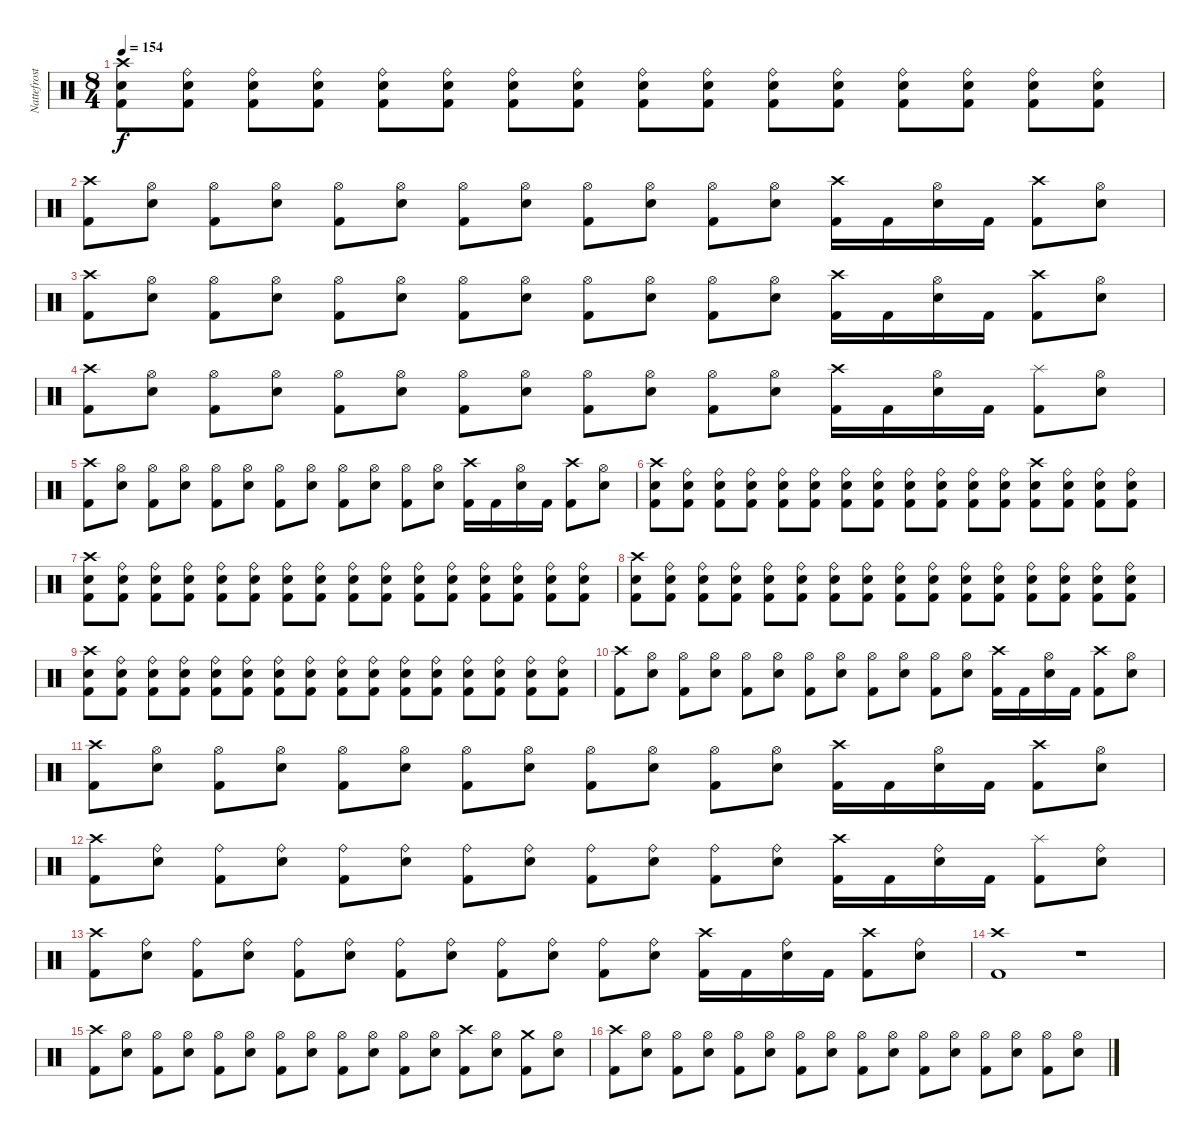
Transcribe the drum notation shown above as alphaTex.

\track ("Nattefrost" "Nattefrost") {instrument percussion}
\staff {score}
\articulation defaults
\ts (8 4)
\tempo 154
\clef neutral
\ks c
("Crash high (hit)" "Snare (hit) 2" "Kick (hit) 2").8{dy f} ("Ride (bell)" "Snare (hit) 2" "Kick (hit) 2").8 ("Ride (bell)" "Snare (hit) 2" "Kick (hit) 2").8 ("Ride (bell)" "Snare (hit) 2" "Kick (hit) 2").8 ("Ride (bell)" "Snare (hit) 2" "Kick (hit) 2").8 ("Ride (bell)" "Snare (hit) 2" "Kick (hit) 2").8 ("Ride (bell)" "Snare (hit) 2" "Kick (hit) 2").8 ("Ride (bell)" "Snare (hit) 2" "Kick (hit) 2").8 ("Ride (bell)" "Snare (hit) 2" "Kick (hit) 2").8 ("Ride (bell)" "Snare (hit) 2" "Kick (hit) 2").8 ("Ride (bell)" "Snare (hit) 2" "Kick (hit) 2").8 ("Ride (bell)" "Snare (hit) 2" "Kick (hit) 2").8 ("Ride (bell)" "Snare (hit) 2" "Kick (hit) 2").8 ("Ride (bell)" "Snare (hit) 2" "Kick (hit) 2").8 ("Ride (bell)" "Snare (hit) 2" "Kick (hit) 2").8 ("Ride (bell)" "Snare (hit) 2" "Kick (hit) 2").8 |
("Crash high (hit)" "Kick (hit) 2").8 ("Hi-Hat (open)" "Snare (hit) 2").8 ("Hi-Hat (open)" "Kick (hit) 2").8 ("Hi-Hat (open)" "Snare (hit) 2").8 ("Hi-Hat (open)" "Kick (hit) 2").8 ("Hi-Hat (open)" "Snare (hit) 2").8 ("Hi-Hat (open)" "Kick (hit) 2").8 ("Hi-Hat (open)" "Snare (hit) 2").8 ("Hi-Hat (open)" "Kick (hit) 2").8 ("Hi-Hat (open)" "Snare (hit) 2").8 ("Hi-Hat (open)" "Kick (hit) 2").8 ("Hi-Hat (open)" "Snare (hit) 2").8 ("Crash high (hit)" "Kick (hit) 2").16 "Kick (hit) 2".16 ("Hi-Hat (open)" "Snare (hit) 2").16 "Kick (hit) 2".16 ("Crash high (hit)" "Kick (hit) 2").8 ("Hi-Hat (open)" "Snare (hit) 2").8 |
("Crash high (hit)" "Kick (hit) 2").8 ("Hi-Hat (open)" "Snare (hit) 2").8 ("Hi-Hat (open)" "Kick (hit) 2").8 ("Hi-Hat (open)" "Snare (hit) 2").8 ("Hi-Hat (open)" "Kick (hit) 2").8 ("Hi-Hat (open)" "Snare (hit) 2").8 ("Hi-Hat (open)" "Kick (hit) 2").8 ("Hi-Hat (open)" "Snare (hit) 2").8 ("Hi-Hat (open)" "Kick (hit) 2").8 ("Hi-Hat (open)" "Snare (hit) 2").8 ("Hi-Hat (open)" "Kick (hit) 2").8 ("Hi-Hat (open)" "Snare (hit) 2").8 ("Crash high (hit)" "Kick (hit) 2").16 "Kick (hit) 2".16 ("Hi-Hat (open)" "Snare (hit) 2").16 "Kick (hit) 2".16 ("Crash high (hit)" "Kick (hit) 2").8 ("Hi-Hat (open)" "Snare (hit) 2").8 |
("Crash high (hit)" "Kick (hit) 2").8 ("Hi-Hat (open)" "Snare (hit) 2").8 ("Hi-Hat (open)" "Kick (hit) 2").8 ("Hi-Hat (open)" "Snare (hit) 2").8 ("Hi-Hat (open)" "Kick (hit) 2").8 ("Hi-Hat (open)" "Snare (hit) 2").8 ("Hi-Hat (open)" "Kick (hit) 2").8 ("Hi-Hat (open)" "Snare (hit) 2").8 ("Hi-Hat (open)" "Kick (hit) 2").8 ("Hi-Hat (open)" "Snare (hit) 2").8 ("Hi-Hat (open)" "Kick (hit) 2").8 ("Hi-Hat (open)" "Snare (hit) 2").8 ("Crash high (hit)" "Kick (hit) 2").16 "Kick (hit) 2".16 ("Hi-Hat (open)" "Snare (hit) 2").16 "Kick (hit) 2".16 ("Splash (hit)" "Kick (hit) 2").8 ("Hi-Hat (open)" "Snare (hit) 2").8 |
("Crash high (hit)" "Kick (hit) 2").8 ("Hi-Hat (open)" "Snare (hit) 2").8 ("Hi-Hat (open)" "Kick (hit) 2").8 ("Hi-Hat (open)" "Snare (hit) 2").8 ("Hi-Hat (open)" "Kick (hit) 2").8 ("Hi-Hat (open)" "Snare (hit) 2").8 ("Hi-Hat (open)" "Kick (hit) 2").8 ("Hi-Hat (open)" "Snare (hit) 2").8 ("Hi-Hat (open)" "Kick (hit) 2").8 ("Hi-Hat (open)" "Snare (hit) 2").8 ("Hi-Hat (open)" "Kick (hit) 2").8 ("Hi-Hat (open)" "Snare (hit) 2").8 ("Crash high (hit)" "Kick (hit) 2").16 "Kick (hit) 2".16 ("Hi-Hat (open)" "Snare (hit) 2").16 "Kick (hit) 2".16 ("Crash high (hit)" "Kick (hit) 2").8 ("Hi-Hat (open)" "Snare (hit) 2").8 |
("Crash high (hit)" "Snare (hit) 2" "Kick (hit) 2").8 ("Ride (bell)" "Snare (hit) 2" "Kick (hit) 2").8 ("Ride (bell)" "Snare (hit) 2" "Kick (hit) 2").8 ("Ride (bell)" "Snare (hit) 2" "Kick (hit) 2").8 ("Ride (bell)" "Snare (hit) 2" "Kick (hit) 2").8 ("Ride (bell)" "Snare (hit) 2" "Kick (hit) 2").8 ("Ride (bell)" "Snare (hit) 2" "Kick (hit) 2").8 ("Ride (bell)" "Snare (hit) 2" "Kick (hit) 2").8 ("Ride (bell)" "Snare (hit) 2" "Kick (hit) 2").8 ("Ride (bell)" "Snare (hit) 2" "Kick (hit) 2").8 ("Ride (bell)" "Snare (hit) 2" "Kick (hit) 2").8 ("Ride (bell)" "Snare (hit) 2" "Kick (hit) 2").8 ("Crash high (hit)" "Snare (hit) 2" "Kick (hit) 2").8 ("Ride (bell)" "Snare (hit) 2" "Kick (hit) 2").8 ("Ride (bell)" "Snare (hit) 2" "Kick (hit) 2").8 ("Ride (bell)" "Snare (hit) 2" "Kick (hit) 2").8 |
("Crash high (hit)" "Snare (hit) 2" "Kick (hit) 2").8 ("Ride (bell)" "Snare (hit) 2" "Kick (hit) 2").8 ("Ride (bell)" "Snare (hit) 2" "Kick (hit) 2").8 ("Ride (bell)" "Snare (hit) 2" "Kick (hit) 2").8 ("Ride (bell)" "Snare (hit) 2" "Kick (hit) 2").8 ("Ride (bell)" "Snare (hit) 2" "Kick (hit) 2").8 ("Ride (bell)" "Snare (hit) 2" "Kick (hit) 2").8 ("Ride (bell)" "Snare (hit) 2" "Kick (hit) 2").8 ("Ride (bell)" "Snare (hit) 2" "Kick (hit) 2").8 ("Ride (bell)" "Snare (hit) 2" "Kick (hit) 2").8 ("Ride (bell)" "Snare (hit) 2" "Kick (hit) 2").8 ("Ride (bell)" "Snare (hit) 2" "Kick (hit) 2").8 ("Ride (bell)" "Snare (hit) 2" "Kick (hit) 2").8 ("Ride (bell)" "Snare (hit) 2" "Kick (hit) 2").8 ("Ride (bell)" "Snare (hit) 2" "Kick (hit) 2").8 ("Ride (bell)" "Snare (hit) 2" "Kick (hit) 2").8 |
("Crash high (hit)" "Snare (hit) 2" "Kick (hit) 2").8 ("Ride (bell)" "Snare (hit) 2" "Kick (hit) 2").8 ("Ride (bell)" "Snare (hit) 2" "Kick (hit) 2").8 ("Ride (bell)" "Snare (hit) 2" "Kick (hit) 2").8 ("Ride (bell)" "Snare (hit) 2" "Kick (hit) 2").8 ("Ride (bell)" "Snare (hit) 2" "Kick (hit) 2").8 ("Ride (bell)" "Snare (hit) 2" "Kick (hit) 2").8 ("Ride (bell)" "Snare (hit) 2" "Kick (hit) 2").8 ("Ride (bell)" "Snare (hit) 2" "Kick (hit) 2").8 ("Ride (bell)" "Snare (hit) 2" "Kick (hit) 2").8 ("Ride (bell)" "Snare (hit) 2" "Kick (hit) 2").8 ("Ride (bell)" "Snare (hit) 2" "Kick (hit) 2").8 ("Ride (bell)" "Snare (hit) 2" "Kick (hit) 2").8 ("Ride (bell)" "Snare (hit) 2" "Kick (hit) 2").8 ("Ride (bell)" "Snare (hit) 2" "Kick (hit) 2").8 ("Ride (bell)" "Snare (hit) 2" "Kick (hit) 2").8 |
("Crash high (hit)" "Snare (hit) 2" "Kick (hit) 2").8 ("Ride (bell)" "Snare (hit) 2" "Kick (hit) 2").8 ("Ride (bell)" "Snare (hit) 2" "Kick (hit) 2").8 ("Ride (bell)" "Snare (hit) 2" "Kick (hit) 2").8 ("Ride (bell)" "Snare (hit) 2" "Kick (hit) 2").8 ("Ride (bell)" "Snare (hit) 2" "Kick (hit) 2").8 ("Ride (bell)" "Snare (hit) 2" "Kick (hit) 2").8 ("Ride (bell)" "Snare (hit) 2" "Kick (hit) 2").8 ("Ride (bell)" "Snare (hit) 2" "Kick (hit) 2").8 ("Ride (bell)" "Snare (hit) 2" "Kick (hit) 2").8 ("Ride (bell)" "Snare (hit) 2" "Kick (hit) 2").8 ("Ride (bell)" "Snare (hit) 2" "Kick (hit) 2").8 ("Ride (bell)" "Snare (hit) 2" "Kick (hit) 2").8 ("Ride (bell)" "Snare (hit) 2" "Kick (hit) 2").8 ("Ride (bell)" "Snare (hit) 2" "Kick (hit) 2").8 ("Ride (bell)" "Snare (hit) 2" "Kick (hit) 2").8 |
("Crash high (hit)" "Kick (hit) 2").8 ("Hi-Hat (open)" "Snare (hit) 2").8 ("Hi-Hat (open)" "Kick (hit) 2").8 ("Hi-Hat (open)" "Snare (hit) 2").8 ("Hi-Hat (open)" "Kick (hit) 2").8 ("Hi-Hat (open)" "Snare (hit) 2").8 ("Hi-Hat (open)" "Kick (hit) 2").8 ("Hi-Hat (open)" "Snare (hit) 2").8 ("Hi-Hat (open)" "Kick (hit) 2").8 ("Hi-Hat (open)" "Snare (hit) 2").8 ("Hi-Hat (open)" "Kick (hit) 2").8 ("Hi-Hat (open)" "Snare (hit) 2").8 ("Crash high (hit)" "Kick (hit) 2").16 "Kick (hit) 2".16 ("Hi-Hat (open)" "Snare (hit) 2").16 "Kick (hit) 2".16 ("Crash high (hit)" "Kick (hit) 2").8 ("Hi-Hat (open)" "Snare (hit) 2").8 |
("Crash high (hit)" "Kick (hit) 2").8 ("Hi-Hat (open)" "Snare (hit) 2").8 ("Hi-Hat (open)" "Kick (hit) 2").8 ("Hi-Hat (open)" "Snare (hit) 2").8 ("Hi-Hat (open)" "Kick (hit) 2").8 ("Hi-Hat (open)" "Snare (hit) 2").8 ("Hi-Hat (open)" "Kick (hit) 2").8 ("Hi-Hat (open)" "Snare (hit) 2").8 ("Hi-Hat (open)" "Kick (hit) 2").8 ("Hi-Hat (open)" "Snare (hit) 2").8 ("Hi-Hat (open)" "Kick (hit) 2").8 ("Hi-Hat (open)" "Snare (hit) 2").8 ("Crash high (hit)" "Kick (hit) 2").16 "Kick (hit) 2".16 ("Hi-Hat (open)" "Snare (hit) 2").16 "Kick (hit) 2".16 ("Crash high (hit)" "Kick (hit) 2").8 ("Hi-Hat (open)" "Snare (hit) 2").8 |
("Crash high (hit)" "Kick (hit) 2").8 ("Ride (bell)" "Snare (hit) 2").8 ("Ride (bell)" "Kick (hit) 2").8 ("Ride (bell)" "Snare (hit) 2").8 ("Ride (bell)" "Kick (hit) 2").8 ("Ride (bell)" "Snare (hit) 2").8 ("Ride (bell)" "Kick (hit) 2").8 ("Ride (bell)" "Snare (hit) 2").8 ("Ride (bell)" "Kick (hit) 2").8 ("Ride (bell)" "Snare (hit) 2").8 ("Ride (bell)" "Kick (hit) 2").8 ("Ride (bell)" "Snare (hit) 2").8 ("Crash high (hit)" "Kick (hit) 2").16 "Kick (hit) 2".16 ("Ride (bell)" "Snare (hit) 2").16 "Kick (hit) 2".16 ("Splash (hit)" "Kick (hit) 2").8 ("Ride (bell)" "Snare (hit) 2").8 |
("Crash high (hit)" "Kick (hit) 2").8 ("Ride (bell)" "Snare (hit) 2").8 ("Ride (bell)" "Kick (hit) 2").8 ("Ride (bell)" "Snare (hit) 2").8 ("Ride (bell)" "Kick (hit) 2").8 ("Ride (bell)" "Snare (hit) 2").8 ("Ride (bell)" "Kick (hit) 2").8 ("Ride (bell)" "Snare (hit) 2").8 ("Ride (bell)" "Kick (hit) 2").8 ("Ride (bell)" "Snare (hit) 2").8 ("Ride (bell)" "Kick (hit) 2").8 ("Ride (bell)" "Snare (hit) 2").8 ("Crash high (hit)" "Kick (hit) 2").16 "Kick (hit) 2".16 ("Ride (bell)" "Snare (hit) 2").16 "Kick (hit) 2".16 ("Crash high (hit)" "Kick (hit) 2").8 ("Ride (bell)" "Snare (hit) 2").8 |
("Crash high (hit)" "Kick (hit) 2").1 r.1 |
("Crash high (hit)" "Kick (hit) 2").8 ("Hi-Hat (open)" "Snare (hit) 2").8 ("Hi-Hat (open)" "Kick (hit) 2").8 ("Hi-Hat (open)" "Snare (hit) 2").8 ("Hi-Hat (open)" "Kick (hit) 2").8 ("Hi-Hat (open)" "Snare (hit) 2").8 ("Hi-Hat (open)" "Kick (hit) 2").8 ("Hi-Hat (open)" "Snare (hit) 2").8 ("Hi-Hat (open)" "Kick (hit) 2").8 ("Hi-Hat (open)" "Snare (hit) 2").8 ("Hi-Hat (open)" "Kick (hit) 2").8 ("Hi-Hat (open)" "Snare (hit) 2").8 ("Crash high (hit)" "Kick (hit) 2").8 ("Hi-Hat (open)" "Snare (hit) 2").8 ("Crash medium (hit)" "Kick (hit) 2").8 ("Hi-Hat (open)" "Snare (hit) 2").8 |
("Crash high (hit)" "Kick (hit) 2").8 ("Hi-Hat (open)" "Snare (hit) 2").8 ("Hi-Hat (open)" "Kick (hit) 2").8 ("Hi-Hat (open)" "Snare (hit) 2").8 ("Hi-Hat (open)" "Kick (hit) 2").8 ("Hi-Hat (open)" "Snare (hit) 2").8 ("Hi-Hat (open)" "Kick (hit) 2").8 ("Hi-Hat (open)" "Snare (hit) 2").8 ("Hi-Hat (open)" "Kick (hit) 2").8 ("Hi-Hat (open)" "Snare (hit) 2").8 ("Hi-Hat (open)" "Kick (hit) 2").8 ("Hi-Hat (open)" "Snare (hit) 2").8 ("Hi-Hat (open)" "Kick (hit) 2").8 ("Hi-Hat (open)" "Snare (hit) 2").8 ("Hi-Hat (open)" "Kick (hit) 2").8 ("Hi-Hat (open)" "Snare (hit) 2").8
